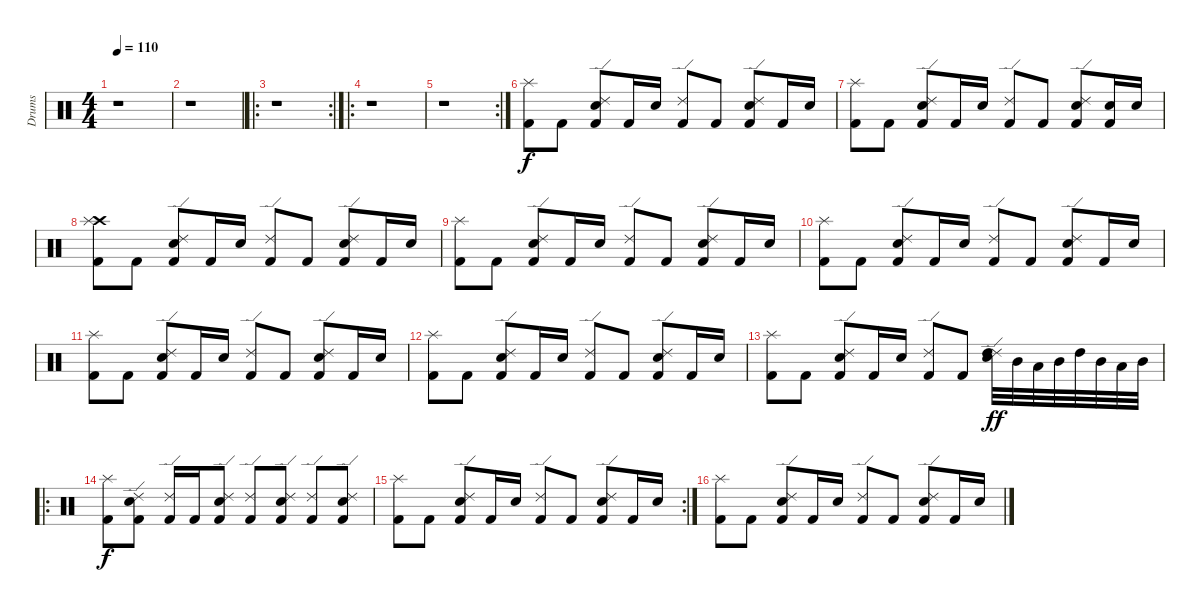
\track ("Drums" "Drums") {instrument percussion}
\staff {score}
\articulation defaults
\ts (4 4)
\tempo 110
\clef neutral
\ks c
r.1{dy f} |
r.1 |
\ro
\rc 2
r.1 |
\ro
r.1 |
\rc 2
r.1 |
("Splash (hit)" "Kick (hit) 2").8 "Kick (hit) 2".8 ("Electric Snare (hit)" "Ride (edge) 2" "Kick (hit) 2").8 "Kick (hit) 2".16 "Electric Snare (hit)".16 ("Ride (edge) 2" "Kick (hit) 2").8 "Kick (hit) 2".8 ("Electric Snare (hit)" "Ride (edge) 2" "Kick (hit) 2").8 "Kick (hit) 2".16 "Electric Snare (hit)".16 |
("Splash (hit)" "Kick (hit) 2").8 "Kick (hit) 2".8 ("Electric Snare (hit)" "Ride (edge) 2" "Kick (hit) 2").8 "Kick (hit) 2".16 "Electric Snare (hit)".16 ("Ride (edge) 2" "Kick (hit) 2").8 "Kick (hit) 2".8 ("Electric Snare (hit)" "Ride (edge) 2" "Kick (hit) 2").8 ("Electric Snare (hit)" "Kick (hit) 2").16 "Electric Snare (hit)".16 |
("Crash high (hit)" "Splash (hit)" "Kick (hit) 2").8 "Kick (hit) 2".8 ("Electric Snare (hit)" "Ride (edge) 2" "Kick (hit) 2").8 "Kick (hit) 2".16 "Electric Snare (hit)".16 ("Ride (edge) 2" "Kick (hit) 2").8 "Kick (hit) 2".8 ("Electric Snare (hit)" "Ride (edge) 2" "Kick (hit) 2").8 "Kick (hit) 2".16 "Electric Snare (hit)".16 |
("Splash (hit)" "Kick (hit) 2").8 "Kick (hit) 2".8 ("Electric Snare (hit)" "Ride (edge) 2" "Kick (hit) 2").8 "Kick (hit) 2".16 "Electric Snare (hit)".16 ("Ride (edge) 2" "Kick (hit) 2").8 "Kick (hit) 2".8 ("Electric Snare (hit)" "Ride (edge) 2" "Kick (hit) 2").8 "Kick (hit) 2".16 "Electric Snare (hit)".16 |
("Splash (hit)" "Kick (hit) 2").8 "Kick (hit) 2".8 ("Electric Snare (hit)" "Ride (edge) 2" "Kick (hit) 2").8 "Kick (hit) 2".16 "Electric Snare (hit)".16 ("Ride (edge) 2" "Kick (hit) 2").8 "Kick (hit) 2".8 ("Electric Snare (hit)" "Ride (edge) 2" "Kick (hit) 2").8 "Kick (hit) 2".16 "Electric Snare (hit)".16 |
("Splash (hit)" "Kick (hit) 2").8 "Kick (hit) 2".8 ("Electric Snare (hit)" "Ride (edge) 2" "Kick (hit) 2").8 "Kick (hit) 2".16 "Electric Snare (hit)".16 ("Ride (edge) 2" "Kick (hit) 2").8 "Kick (hit) 2".8 ("Electric Snare (hit)" "Ride (edge) 2" "Kick (hit) 2").8 "Kick (hit) 2".16 "Electric Snare (hit)".16 |
("Splash (hit)" "Kick (hit) 2").8 "Kick (hit) 2".8 ("Electric Snare (hit)" "Ride (edge) 2" "Kick (hit) 2").8 "Kick (hit) 2".16 "Electric Snare (hit)".16 ("Ride (edge) 2" "Kick (hit) 2").8 "Kick (hit) 2".8 ("Electric Snare (hit)" "Ride (edge) 2" "Kick (hit) 2").8 "Kick (hit) 2".16 "Electric Snare (hit)".16 |
("Splash (hit)" "Kick (hit) 2").8 "Kick (hit) 2".8 ("Electric Snare (hit)" "Ride (edge) 2" "Kick (hit) 2").8 "Kick (hit) 2".16 "Electric Snare (hit)".16 ("Ride (edge) 2" "Kick (hit) 2").8 "Kick (hit) 2".8 ("Electric Snare (hit)" "Ride (edge) 2" "High Tom (hit)").32{dy ff} "Mid Tom (hit)".32 "Low Tom (hit)".32 "Mid Tom (hit)".32 "High Tom (hit)".32 "Mid Tom (hit)".32 "Low Tom (hit)".32 "Mid Tom (hit)".32 |
\ro
("Splash (hit)" "Kick (hit) 2").8{dy f} ("Electric Snare (hit)" "Ride (edge) 2" "Kick (hit) 2").8 ("Ride (edge) 2" "Kick (hit) 2").16 "Kick (hit) 2".16 ("Electric Snare (hit)" "Ride (edge) 2" "Kick (hit) 2").8 ("Ride (edge) 2" "Kick (hit) 2").8 ("Electric Snare (hit)" "Ride (edge) 2" "Kick (hit) 2").8 ("Ride (edge) 2" "Kick (hit) 2").8 ("Electric Snare (hit)" "Ride (edge) 2" "Kick (hit) 2").8 |
\rc 2
("Splash (hit)" "Kick (hit) 2").8 "Kick (hit) 2".8 ("Electric Snare (hit)" "Ride (edge) 2" "Kick (hit) 2").8 "Kick (hit) 2".16 "Electric Snare (hit)".16 ("Ride (edge) 2" "Kick (hit) 2").8 "Kick (hit) 2".8 ("Electric Snare (hit)" "Ride (edge) 2" "Kick (hit) 2").8 "Kick (hit) 2".16 "Electric Snare (hit)".16 |
("Splash (hit)" "Kick (hit) 2").8 "Kick (hit) 2".8 ("Electric Snare (hit)" "Ride (edge) 2" "Kick (hit) 2").8 "Kick (hit) 2".16 "Electric Snare (hit)".16 ("Ride (edge) 2" "Kick (hit) 2").8 "Kick (hit) 2".8 ("Electric Snare (hit)" "Ride (edge) 2" "Kick (hit) 2").8 "Kick (hit) 2".16 "Electric Snare (hit)".16
